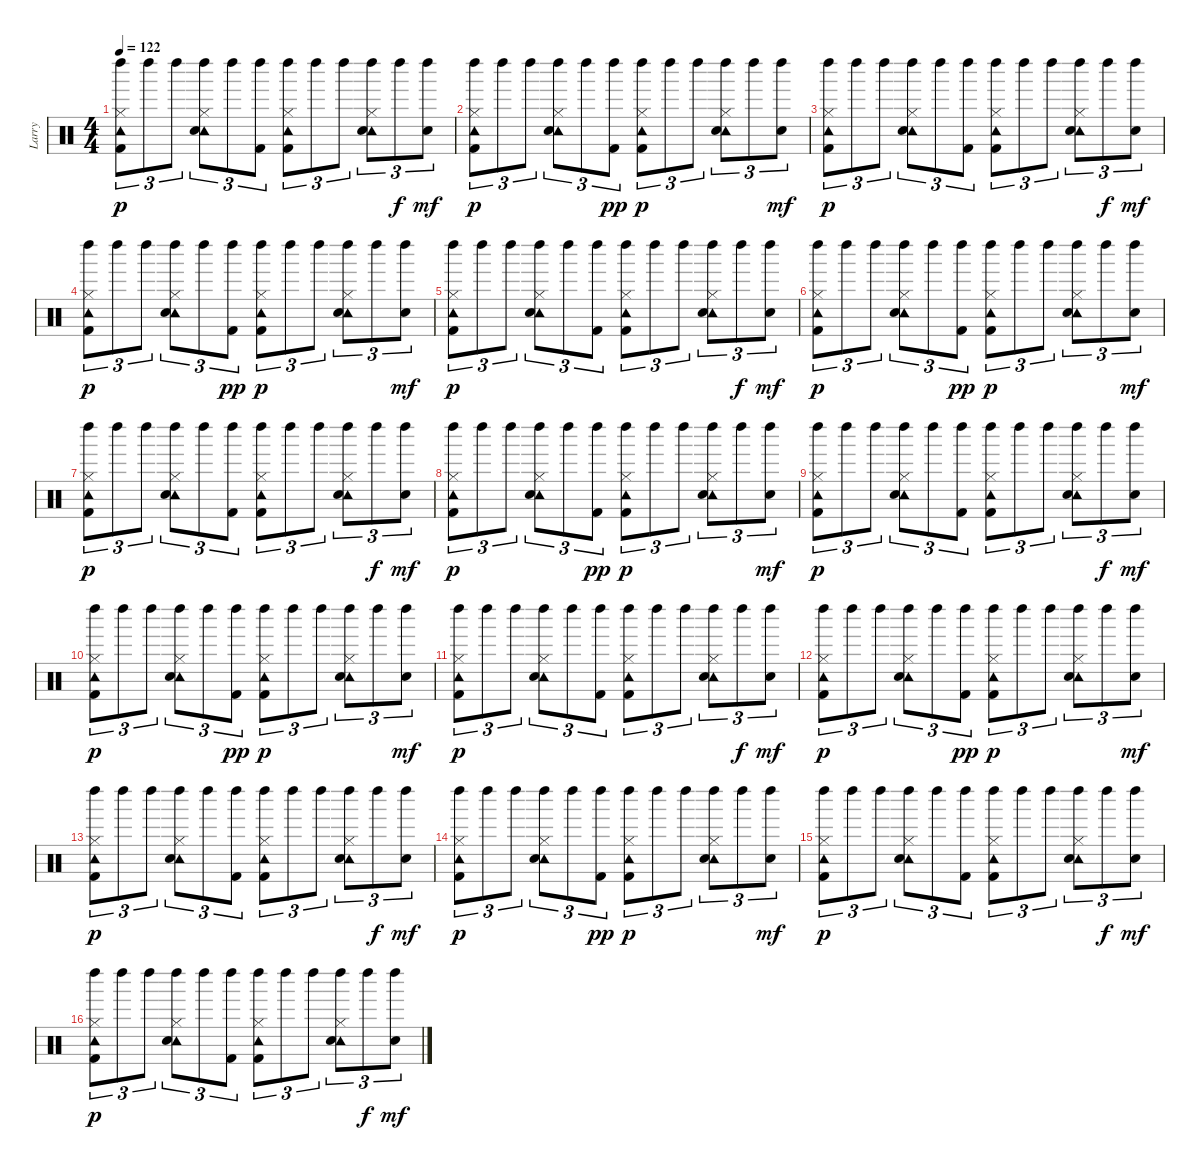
\track ("Larry" "Larry") {instrument percussion}
\staff {score}
\articulation defaults
\ts (4 4)
\tempo 122
\clef neutral
\ks c
("Left Maraca (hit)" "Tambourine (hit)" "Hi-Hat (closed)" "Kick (hit) 2").8{tu (3 2) dy p} "Left Maraca (hit)".8{tu (3 2)} "Left Maraca (hit)".8{tu (3 2)} ("Left Maraca (hit)" "Tambourine (hit)" "Hi-Hat (closed)" "Snare (hit) 2").8{tu (3 2)} "Left Maraca (hit)".8{tu (3 2)} ("Left Maraca (hit)" "Kick (hit) 2").8{tu (3 2)} ("Left Maraca (hit)" "Tambourine (hit)" "Hi-Hat (closed)" "Kick (hit) 2").8{tu (3 2)} "Left Maraca (hit)".8{tu (3 2)} "Left Maraca (hit)".8{tu (3 2)} ("Left Maraca (hit)" "Tambourine (hit)" "Hi-Hat (closed)" "Snare (hit) 2").8{tu (3 2)} "Left Maraca (hit)".8{tu (3 2) dy f} ("Left Maraca (hit)" "Snare (hit) 2").8{tu (3 2) dy mf} |
("Left Maraca (hit)" "Tambourine (hit)" "Hi-Hat (closed)" "Kick (hit) 2").8{tu (3 2) dy p} "Left Maraca (hit)".8{tu (3 2)} "Left Maraca (hit)".8{tu (3 2)} ("Left Maraca (hit)" "Tambourine (hit)" "Hi-Hat (closed)" "Snare (hit) 2").8{tu (3 2)} "Left Maraca (hit)".8{tu (3 2)} ("Left Maraca (hit)" "Kick (hit) 2").8{tu (3 2) dy pp} ("Left Maraca (hit)" "Tambourine (hit)" "Hi-Hat (closed)" "Kick (hit) 2").8{tu (3 2) dy p} "Left Maraca (hit)".8{tu (3 2)} "Left Maraca (hit)".8{tu (3 2)} ("Left Maraca (hit)" "Tambourine (hit)" "Hi-Hat (closed)" "Snare (hit) 2").8{tu (3 2)} "Left Maraca (hit)".8{tu (3 2)} ("Left Maraca (hit)" "Snare (hit) 2").8{tu (3 2) dy mf} |
("Left Maraca (hit)" "Tambourine (hit)" "Hi-Hat (closed)" "Kick (hit) 2").8{tu (3 2) dy p} "Left Maraca (hit)".8{tu (3 2)} "Left Maraca (hit)".8{tu (3 2)} ("Left Maraca (hit)" "Tambourine (hit)" "Hi-Hat (closed)" "Snare (hit) 2").8{tu (3 2)} "Left Maraca (hit)".8{tu (3 2)} ("Left Maraca (hit)" "Kick (hit) 2").8{tu (3 2)} ("Left Maraca (hit)" "Tambourine (hit)" "Hi-Hat (closed)" "Kick (hit) 2").8{tu (3 2)} "Left Maraca (hit)".8{tu (3 2)} "Left Maraca (hit)".8{tu (3 2)} ("Left Maraca (hit)" "Tambourine (hit)" "Hi-Hat (closed)" "Snare (hit) 2").8{tu (3 2)} "Left Maraca (hit)".8{tu (3 2) dy f} ("Left Maraca (hit)" "Snare (hit) 2").8{tu (3 2) dy mf} |
("Left Maraca (hit)" "Tambourine (hit)" "Hi-Hat (closed)" "Kick (hit) 2").8{tu (3 2) dy p} "Left Maraca (hit)".8{tu (3 2)} "Left Maraca (hit)".8{tu (3 2)} ("Left Maraca (hit)" "Tambourine (hit)" "Hi-Hat (closed)" "Snare (hit) 2").8{tu (3 2)} "Left Maraca (hit)".8{tu (3 2)} ("Left Maraca (hit)" "Kick (hit) 2").8{tu (3 2) dy pp} ("Left Maraca (hit)" "Tambourine (hit)" "Hi-Hat (closed)" "Kick (hit) 2").8{tu (3 2) dy p} "Left Maraca (hit)".8{tu (3 2)} "Left Maraca (hit)".8{tu (3 2)} ("Left Maraca (hit)" "Tambourine (hit)" "Hi-Hat (closed)" "Snare (hit) 2").8{tu (3 2)} "Left Maraca (hit)".8{tu (3 2)} ("Left Maraca (hit)" "Snare (hit) 2").8{tu (3 2) dy mf} |
("Left Maraca (hit)" "Tambourine (hit)" "Hi-Hat (closed)" "Kick (hit) 2").8{tu (3 2) dy p} "Left Maraca (hit)".8{tu (3 2)} "Left Maraca (hit)".8{tu (3 2)} ("Left Maraca (hit)" "Tambourine (hit)" "Hi-Hat (closed)" "Snare (hit) 2").8{tu (3 2)} "Left Maraca (hit)".8{tu (3 2)} ("Left Maraca (hit)" "Kick (hit) 2").8{tu (3 2)} ("Left Maraca (hit)" "Tambourine (hit)" "Hi-Hat (closed)" "Kick (hit) 2").8{tu (3 2)} "Left Maraca (hit)".8{tu (3 2)} "Left Maraca (hit)".8{tu (3 2)} ("Left Maraca (hit)" "Tambourine (hit)" "Hi-Hat (closed)" "Snare (hit) 2").8{tu (3 2)} "Left Maraca (hit)".8{tu (3 2) dy f} ("Left Maraca (hit)" "Snare (hit) 2").8{tu (3 2) dy mf} |
("Left Maraca (hit)" "Tambourine (hit)" "Hi-Hat (closed)" "Kick (hit) 2").8{tu (3 2) dy p} "Left Maraca (hit)".8{tu (3 2)} "Left Maraca (hit)".8{tu (3 2)} ("Left Maraca (hit)" "Tambourine (hit)" "Hi-Hat (closed)" "Snare (hit) 2").8{tu (3 2)} "Left Maraca (hit)".8{tu (3 2)} ("Left Maraca (hit)" "Kick (hit) 2").8{tu (3 2) dy pp} ("Left Maraca (hit)" "Tambourine (hit)" "Hi-Hat (closed)" "Kick (hit) 2").8{tu (3 2) dy p} "Left Maraca (hit)".8{tu (3 2)} "Left Maraca (hit)".8{tu (3 2)} ("Left Maraca (hit)" "Tambourine (hit)" "Hi-Hat (closed)" "Snare (hit) 2").8{tu (3 2)} "Left Maraca (hit)".8{tu (3 2)} ("Left Maraca (hit)" "Snare (hit) 2").8{tu (3 2) dy mf} |
("Left Maraca (hit)" "Tambourine (hit)" "Hi-Hat (closed)" "Kick (hit) 2").8{tu (3 2) dy p} "Left Maraca (hit)".8{tu (3 2)} "Left Maraca (hit)".8{tu (3 2)} ("Left Maraca (hit)" "Tambourine (hit)" "Hi-Hat (closed)" "Snare (hit) 2").8{tu (3 2)} "Left Maraca (hit)".8{tu (3 2)} ("Left Maraca (hit)" "Kick (hit) 2").8{tu (3 2)} ("Left Maraca (hit)" "Tambourine (hit)" "Hi-Hat (closed)" "Kick (hit) 2").8{tu (3 2)} "Left Maraca (hit)".8{tu (3 2)} "Left Maraca (hit)".8{tu (3 2)} ("Left Maraca (hit)" "Tambourine (hit)" "Hi-Hat (closed)" "Snare (hit) 2").8{tu (3 2)} "Left Maraca (hit)".8{tu (3 2) dy f} ("Left Maraca (hit)" "Snare (hit) 2").8{tu (3 2) dy mf} |
("Left Maraca (hit)" "Tambourine (hit)" "Hi-Hat (closed)" "Kick (hit) 2").8{tu (3 2) dy p} "Left Maraca (hit)".8{tu (3 2)} "Left Maraca (hit)".8{tu (3 2)} ("Left Maraca (hit)" "Tambourine (hit)" "Hi-Hat (closed)" "Snare (hit) 2").8{tu (3 2)} "Left Maraca (hit)".8{tu (3 2)} ("Left Maraca (hit)" "Kick (hit) 2").8{tu (3 2) dy pp} ("Left Maraca (hit)" "Tambourine (hit)" "Hi-Hat (closed)" "Kick (hit) 2").8{tu (3 2) dy p} "Left Maraca (hit)".8{tu (3 2)} "Left Maraca (hit)".8{tu (3 2)} ("Left Maraca (hit)" "Tambourine (hit)" "Hi-Hat (closed)" "Snare (hit) 2").8{tu (3 2)} "Left Maraca (hit)".8{tu (3 2)} ("Left Maraca (hit)" "Snare (hit) 2").8{tu (3 2) dy mf} |
("Left Maraca (hit)" "Tambourine (hit)" "Hi-Hat (closed)" "Kick (hit) 2").8{tu (3 2) dy p} "Left Maraca (hit)".8{tu (3 2)} "Left Maraca (hit)".8{tu (3 2)} ("Left Maraca (hit)" "Tambourine (hit)" "Hi-Hat (closed)" "Snare (hit) 2").8{tu (3 2)} "Left Maraca (hit)".8{tu (3 2)} ("Left Maraca (hit)" "Kick (hit) 2").8{tu (3 2)} ("Left Maraca (hit)" "Tambourine (hit)" "Hi-Hat (closed)" "Kick (hit) 2").8{tu (3 2)} "Left Maraca (hit)".8{tu (3 2)} "Left Maraca (hit)".8{tu (3 2)} ("Left Maraca (hit)" "Tambourine (hit)" "Hi-Hat (closed)" "Snare (hit) 2").8{tu (3 2)} "Left Maraca (hit)".8{tu (3 2) dy f} ("Left Maraca (hit)" "Snare (hit) 2").8{tu (3 2) dy mf} |
("Left Maraca (hit)" "Tambourine (hit)" "Hi-Hat (closed)" "Kick (hit) 2").8{tu (3 2) dy p} "Left Maraca (hit)".8{tu (3 2)} "Left Maraca (hit)".8{tu (3 2)} ("Left Maraca (hit)" "Tambourine (hit)" "Hi-Hat (closed)" "Snare (hit) 2").8{tu (3 2)} "Left Maraca (hit)".8{tu (3 2)} ("Left Maraca (hit)" "Kick (hit) 2").8{tu (3 2) dy pp} ("Left Maraca (hit)" "Tambourine (hit)" "Hi-Hat (closed)" "Kick (hit) 2").8{tu (3 2) dy p} "Left Maraca (hit)".8{tu (3 2)} "Left Maraca (hit)".8{tu (3 2)} ("Left Maraca (hit)" "Tambourine (hit)" "Hi-Hat (closed)" "Snare (hit) 2").8{tu (3 2)} "Left Maraca (hit)".8{tu (3 2)} ("Left Maraca (hit)" "Snare (hit) 2").8{tu (3 2) dy mf} |
("Left Maraca (hit)" "Tambourine (hit)" "Hi-Hat (closed)" "Kick (hit) 2").8{tu (3 2) dy p} "Left Maraca (hit)".8{tu (3 2)} "Left Maraca (hit)".8{tu (3 2)} ("Left Maraca (hit)" "Tambourine (hit)" "Hi-Hat (closed)" "Snare (hit) 2").8{tu (3 2)} "Left Maraca (hit)".8{tu (3 2)} ("Left Maraca (hit)" "Kick (hit) 2").8{tu (3 2)} ("Left Maraca (hit)" "Tambourine (hit)" "Hi-Hat (closed)" "Kick (hit) 2").8{tu (3 2)} "Left Maraca (hit)".8{tu (3 2)} "Left Maraca (hit)".8{tu (3 2)} ("Left Maraca (hit)" "Tambourine (hit)" "Hi-Hat (closed)" "Snare (hit) 2").8{tu (3 2)} "Left Maraca (hit)".8{tu (3 2) dy f} ("Left Maraca (hit)" "Snare (hit) 2").8{tu (3 2) dy mf} |
("Left Maraca (hit)" "Tambourine (hit)" "Hi-Hat (closed)" "Kick (hit) 2").8{tu (3 2) dy p} "Left Maraca (hit)".8{tu (3 2)} "Left Maraca (hit)".8{tu (3 2)} ("Left Maraca (hit)" "Tambourine (hit)" "Hi-Hat (closed)" "Snare (hit) 2").8{tu (3 2)} "Left Maraca (hit)".8{tu (3 2)} ("Left Maraca (hit)" "Kick (hit) 2").8{tu (3 2) dy pp} ("Left Maraca (hit)" "Tambourine (hit)" "Hi-Hat (closed)" "Kick (hit) 2").8{tu (3 2) dy p} "Left Maraca (hit)".8{tu (3 2)} "Left Maraca (hit)".8{tu (3 2)} ("Left Maraca (hit)" "Tambourine (hit)" "Hi-Hat (closed)" "Snare (hit) 2").8{tu (3 2)} "Left Maraca (hit)".8{tu (3 2)} ("Left Maraca (hit)" "Snare (hit) 2").8{tu (3 2) dy mf} |
("Left Maraca (hit)" "Tambourine (hit)" "Hi-Hat (closed)" "Kick (hit) 2").8{tu (3 2) dy p} "Left Maraca (hit)".8{tu (3 2)} "Left Maraca (hit)".8{tu (3 2)} ("Left Maraca (hit)" "Tambourine (hit)" "Hi-Hat (closed)" "Snare (hit) 2").8{tu (3 2)} "Left Maraca (hit)".8{tu (3 2)} ("Left Maraca (hit)" "Kick (hit) 2").8{tu (3 2)} ("Left Maraca (hit)" "Tambourine (hit)" "Hi-Hat (closed)" "Kick (hit) 2").8{tu (3 2)} "Left Maraca (hit)".8{tu (3 2)} "Left Maraca (hit)".8{tu (3 2)} ("Left Maraca (hit)" "Tambourine (hit)" "Hi-Hat (closed)" "Snare (hit) 2").8{tu (3 2)} "Left Maraca (hit)".8{tu (3 2) dy f} ("Left Maraca (hit)" "Snare (hit) 2").8{tu (3 2) dy mf} |
("Left Maraca (hit)" "Tambourine (hit)" "Hi-Hat (closed)" "Kick (hit) 2").8{tu (3 2) dy p} "Left Maraca (hit)".8{tu (3 2)} "Left Maraca (hit)".8{tu (3 2)} ("Left Maraca (hit)" "Tambourine (hit)" "Hi-Hat (closed)" "Snare (hit) 2").8{tu (3 2)} "Left Maraca (hit)".8{tu (3 2)} ("Left Maraca (hit)" "Kick (hit) 2").8{tu (3 2) dy pp} ("Left Maraca (hit)" "Tambourine (hit)" "Hi-Hat (closed)" "Kick (hit) 2").8{tu (3 2) dy p} "Left Maraca (hit)".8{tu (3 2)} "Left Maraca (hit)".8{tu (3 2)} ("Left Maraca (hit)" "Tambourine (hit)" "Hi-Hat (closed)" "Snare (hit) 2").8{tu (3 2)} "Left Maraca (hit)".8{tu (3 2)} ("Left Maraca (hit)" "Snare (hit) 2").8{tu (3 2) dy mf} |
("Left Maraca (hit)" "Tambourine (hit)" "Hi-Hat (closed)" "Kick (hit) 2").8{tu (3 2) dy p} "Left Maraca (hit)".8{tu (3 2)} "Left Maraca (hit)".8{tu (3 2)} ("Left Maraca (hit)" "Tambourine (hit)" "Hi-Hat (closed)" "Snare (hit) 2").8{tu (3 2)} "Left Maraca (hit)".8{tu (3 2)} ("Left Maraca (hit)" "Kick (hit) 2").8{tu (3 2)} ("Left Maraca (hit)" "Tambourine (hit)" "Hi-Hat (closed)" "Kick (hit) 2").8{tu (3 2)} "Left Maraca (hit)".8{tu (3 2)} "Left Maraca (hit)".8{tu (3 2)} ("Left Maraca (hit)" "Tambourine (hit)" "Hi-Hat (closed)" "Snare (hit) 2").8{tu (3 2)} "Left Maraca (hit)".8{tu (3 2) dy f} ("Left Maraca (hit)" "Snare (hit) 2").8{tu (3 2) dy mf} |
("Left Maraca (hit)" "Tambourine (hit)" "Hi-Hat (closed)" "Kick (hit) 2").8{tu (3 2) dy p} "Left Maraca (hit)".8{tu (3 2)} "Left Maraca (hit)".8{tu (3 2)} ("Left Maraca (hit)" "Tambourine (hit)" "Hi-Hat (closed)" "Snare (hit) 2").8{tu (3 2)} "Left Maraca (hit)".8{tu (3 2)} ("Left Maraca (hit)" "Kick (hit) 2").8{tu (3 2)} ("Left Maraca (hit)" "Tambourine (hit)" "Hi-Hat (closed)" "Kick (hit) 2").8{tu (3 2)} "Left Maraca (hit)".8{tu (3 2)} "Left Maraca (hit)".8{tu (3 2)} ("Left Maraca (hit)" "Tambourine (hit)" "Hi-Hat (closed)" "Snare (hit) 2").8{tu (3 2)} "Left Maraca (hit)".8{tu (3 2) dy f} ("Left Maraca (hit)" "Snare (hit) 2").8{tu (3 2) dy mf}
